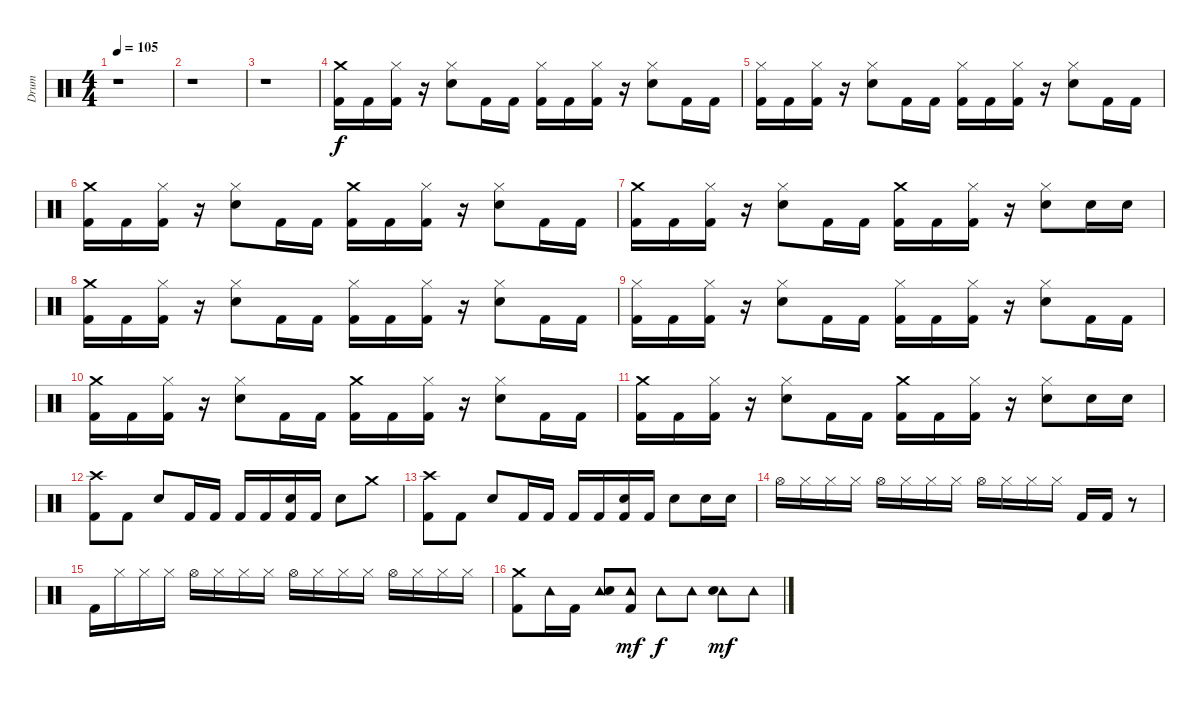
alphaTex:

\track ("Drum" "Drum") {instrument percussion}
\staff {score}
\articulation defaults
\ts (4 4)
\tempo 105
\clef neutral
\ks c
r.1{dy f} |
r.1 |
r.1 |
("Crash medium (hit)" "Kick (hit) 2").16 "Kick (hit) 2".16 ("Hi-Hat (closed)" "Kick (hit) 2").16 r.16 ("Hi-Hat (closed)" "Electric Snare (hit)").8 "Kick (hit) 2".16 "Kick (hit) 2".16 ("Hi-Hat (closed)" "Kick (hit) 2").16 "Kick (hit) 2".16 ("Hi-Hat (closed)" "Kick (hit) 2").16 r.16 ("Hi-Hat (closed)" "Electric Snare (hit)").8 "Kick (hit) 2".16 "Kick (hit) 2".16 |
("Hi-Hat (closed)" "Kick (hit) 2").16 "Kick (hit) 2".16 ("Hi-Hat (closed)" "Kick (hit) 2").16 r.16 ("Hi-Hat (closed)" "Electric Snare (hit)").8 "Kick (hit) 2".16 "Kick (hit) 2".16 ("Hi-Hat (closed)" "Kick (hit) 2").16 "Kick (hit) 2".16 ("Hi-Hat (closed)" "Kick (hit) 2").16 r.16 ("Hi-Hat (closed)" "Electric Snare (hit)").8 "Kick (hit) 2".16 "Kick (hit) 2".16 |
("Crash medium (hit)" "Kick (hit) 2").16 "Kick (hit) 2".16 ("Hi-Hat (closed)" "Kick (hit) 2").16 r.16 ("Hi-Hat (closed)" "Electric Snare (hit)").8 "Kick (hit) 2".16 "Kick (hit) 2".16 ("Crash medium (hit)" "Kick (hit) 2").16 "Kick (hit) 2".16 ("Hi-Hat (closed)" "Kick (hit) 2").16 r.16 ("Hi-Hat (closed)" "Electric Snare (hit)").8 "Kick (hit) 2".16 "Kick (hit) 2".16 |
("Crash medium (hit)" "Kick (hit) 2").16 "Kick (hit) 2".16 ("Hi-Hat (closed)" "Kick (hit) 2").16 r.16 ("Hi-Hat (closed)" "Electric Snare (hit)").8 "Kick (hit) 2".16 "Kick (hit) 2".16 ("Crash medium (hit)" "Kick (hit) 2").16 "Kick (hit) 2".16 ("Hi-Hat (closed)" "Kick (hit) 2").16 r.16 ("Hi-Hat (closed)" "Electric Snare (hit)").8 "Electric Snare (hit)".16 "Electric Snare (hit)".16 |
("Crash medium (hit)" "Kick (hit) 2").16 "Kick (hit) 2".16 ("Hi-Hat (closed)" "Kick (hit) 2").16 r.16 ("Hi-Hat (closed)" "Electric Snare (hit)").8 "Kick (hit) 2".16 "Kick (hit) 2".16 ("Hi-Hat (closed)" "Kick (hit) 2").16 "Kick (hit) 2".16 ("Hi-Hat (closed)" "Kick (hit) 2").16 r.16 ("Hi-Hat (closed)" "Electric Snare (hit)").8 "Kick (hit) 2".16 "Kick (hit) 2".16 |
("Hi-Hat (closed)" "Kick (hit) 2").16 "Kick (hit) 2".16 ("Hi-Hat (closed)" "Kick (hit) 2").16 r.16 ("Hi-Hat (closed)" "Electric Snare (hit)").8 "Kick (hit) 2".16 "Kick (hit) 2".16 ("Hi-Hat (closed)" "Kick (hit) 2").16 "Kick (hit) 2".16 ("Hi-Hat (closed)" "Kick (hit) 2").16 r.16 ("Hi-Hat (closed)" "Electric Snare (hit)").8 "Kick (hit) 2".16 "Kick (hit) 2".16 |
("Crash medium (hit)" "Kick (hit) 2").16 "Kick (hit) 2".16 ("Hi-Hat (closed)" "Kick (hit) 2").16 r.16 ("Hi-Hat (closed)" "Electric Snare (hit)").8 "Kick (hit) 2".16 "Kick (hit) 2".16 ("Crash medium (hit)" "Kick (hit) 2").16 "Kick (hit) 2".16 ("Hi-Hat (closed)" "Kick (hit) 2").16 r.16 ("Hi-Hat (closed)" "Electric Snare (hit)").8 "Kick (hit) 2".16 "Kick (hit) 2".16 |
("Crash medium (hit)" "Kick (hit) 2").16 "Kick (hit) 2".16 ("Hi-Hat (closed)" "Kick (hit) 2").16 r.16 ("Hi-Hat (closed)" "Electric Snare (hit)").8 "Kick (hit) 2".16 "Kick (hit) 2".16 ("Crash medium (hit)" "Kick (hit) 2").16 "Kick (hit) 2".16 ("Hi-Hat (closed)" "Kick (hit) 2").16 r.16 ("Hi-Hat (closed)" "Electric Snare (hit)").8 "Electric Snare (hit)".16 "Electric Snare (hit)".16 |
("Crash high (hit)" "Kick (hit) 2").8 "Kick (hit) 2".8 "Electric Snare (hit)".8 "Kick (hit) 2".16 "Kick (hit) 2".16 "Kick (hit) 2".16 "Kick (hit) 2".16 ("Electric Snare (hit)" "Kick (hit) 2").16 "Kick (hit) 2".16 "Electric Snare (hit)".8 "Crash medium (hit)".8 |
("Crash high (hit)" "Kick (hit) 2").8 "Kick (hit) 2".8 "Electric Snare (hit)".8 "Kick (hit) 2".16 "Kick (hit) 2".16 "Kick (hit) 2".16 "Kick (hit) 2".16 ("Electric Snare (hit)" "Kick (hit) 2").16 "Kick (hit) 2".16 "Electric Snare (hit)".8 "Electric Snare (hit)".16 "Electric Snare (hit)".16 |
"Hi-Hat (open)".16 "Hi-Hat (closed)".16 "Hi-Hat (closed)".16 "Hi-Hat (closed)".16 "Hi-Hat (open)".16 "Hi-Hat (closed)".16 "Hi-Hat (closed)".16 "Hi-Hat (closed)".16 "Hi-Hat (open)".16 "Hi-Hat (closed)".16 "Hi-Hat (closed)".16 "Hi-Hat (closed)".16 "Kick (hit) 2".16 "Kick (hit) 2".16 r.8 |
"Kick (hit) 2".16 "Hi-Hat (closed)".16 "Hi-Hat (closed)".16 "Hi-Hat (closed)".16 "Hi-Hat (open)".16 "Hi-Hat (closed)".16 "Hi-Hat (closed)".16 "Hi-Hat (closed)".16 "Hi-Hat (open)".16 "Hi-Hat (closed)".16 "Hi-Hat (closed)".16 "Hi-Hat (closed)".16 "Hi-Hat (open)".16 "Hi-Hat (closed)".16 "Hi-Hat (closed)".16 "Hi-Hat (closed)".16 |
("Crash medium (hit)" "Kick (hit) 2").8 "Tambourine (hit)".16 "Kick (hit) 2".16 ("Tambourine (hit)" "Electric Snare (hit)").8 ("Tambourine (hit)" "Kick (hit) 2").8{dy mf} "Tambourine (hit)".8{dy f} "Tambourine (hit)".8 ("Tambourine (hit)" "Electric Snare (hit)").8{dy mf} "Tambourine (hit)".8
